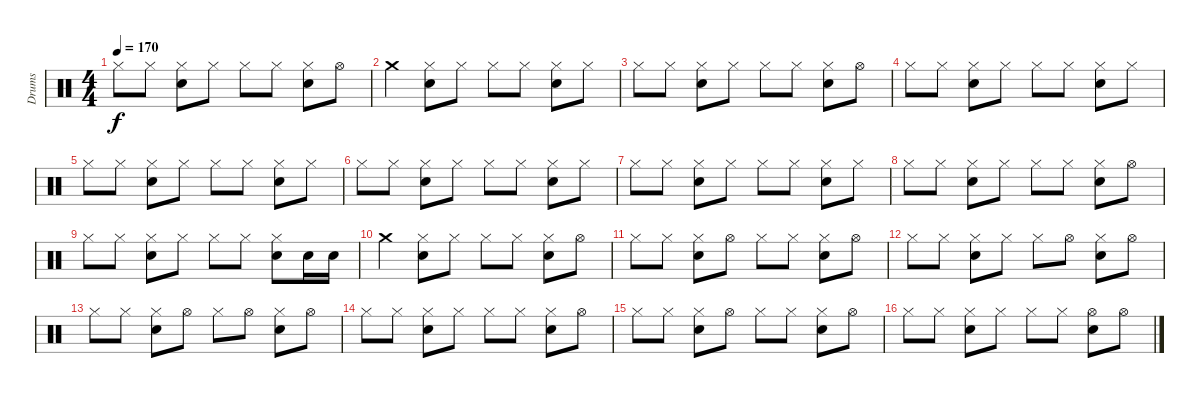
\track ("Drums" "Drums") {instrument percussion}
\staff {score}
\articulation defaults
\ts (4 4)
\tempo 170
\clef neutral
\ks c "Hi-Hat (closed)".8{dy f} "Hi-Hat (closed)".8
("Electric Snare (hit)" "Hi-Hat (closed)").8 "Hi-Hat (closed)".8 "Hi-Hat (closed)".8 "Hi-Hat (closed)".8 ("Electric Snare (hit)" "Hi-Hat (closed)").8 "Hi-Hat (open)".8 |
"Crash medium (hit)".4 ("Electric Snare (hit)" "Hi-Hat (closed)").8 "Hi-Hat (closed)".8 "Hi-Hat (closed)".8 "Hi-Hat (closed)".8 ("Electric Snare (hit)" "Hi-Hat (closed)").8 "Hi-Hat (closed)".8 |
"Hi-Hat (closed)".8 "Hi-Hat (closed)".8 ("Electric Snare (hit)" "Hi-Hat (closed)").8 "Hi-Hat (closed)".8 "Hi-Hat (closed)".8 "Hi-Hat (closed)".8 ("Electric Snare (hit)" "Hi-Hat (closed)").8 "Hi-Hat (open)".8 |
"Hi-Hat (closed)".8 "Hi-Hat (closed)".8 ("Electric Snare (hit)" "Hi-Hat (closed)").8 "Hi-Hat (closed)".8 "Hi-Hat (closed)".8 "Hi-Hat (closed)".8 ("Electric Snare (hit)" "Hi-Hat (closed)").8 "Hi-Hat (closed)".8 |
"Hi-Hat (closed)".8 "Hi-Hat (closed)".8 ("Electric Snare (hit)" "Hi-Hat (closed)").8 "Hi-Hat (closed)".8 "Hi-Hat (closed)".8 "Hi-Hat (closed)".8 ("Electric Snare (hit)" "Hi-Hat (closed)").8 "Hi-Hat (closed)".8 |
"Hi-Hat (closed)".8 "Hi-Hat (closed)".8 ("Electric Snare (hit)" "Hi-Hat (closed)").8 "Hi-Hat (closed)".8 "Hi-Hat (closed)".8 "Hi-Hat (closed)".8 ("Electric Snare (hit)" "Hi-Hat (closed)").8 "Hi-Hat (closed)".8 |
"Hi-Hat (closed)".8 "Hi-Hat (closed)".8 ("Electric Snare (hit)" "Hi-Hat (closed)").8 "Hi-Hat (closed)".8 "Hi-Hat (closed)".8 "Hi-Hat (closed)".8 ("Electric Snare (hit)" "Hi-Hat (closed)").8 "Hi-Hat (closed)".8 |
"Hi-Hat (closed)".8 "Hi-Hat (closed)".8 ("Electric Snare (hit)" "Hi-Hat (closed)").8 "Hi-Hat (closed)".8 "Hi-Hat (closed)".8 "Hi-Hat (closed)".8 ("Electric Snare (hit)" "Hi-Hat (closed)").8 "Hi-Hat (open)".8 |
"Hi-Hat (closed)".8 "Hi-Hat (closed)".8 ("Electric Snare (hit)" "Hi-Hat (closed)").8 "Hi-Hat (closed)".8 "Hi-Hat (closed)".8 "Hi-Hat (closed)".8 ("Electric Snare (hit)" "Hi-Hat (closed)").8 "Electric Snare (hit)".16 "Electric Snare (hit)".16 |
"Crash medium (hit)".4 ("Electric Snare (hit)" "Hi-Hat (closed)").8 "Hi-Hat (closed)".8 "Hi-Hat (closed)".8 "Hi-Hat (closed)".8 ("Electric Snare (hit)" "Hi-Hat (closed)").8 "Hi-Hat (open)".8 |
"Hi-Hat (closed)".8 "Hi-Hat (closed)".8 ("Electric Snare (hit)" "Hi-Hat (closed)").8 "Hi-Hat (open)".8 "Hi-Hat (closed)".8 "Hi-Hat (closed)".8 ("Electric Snare (hit)" "Hi-Hat (closed)").8 "Hi-Hat (open)".8 |
"Hi-Hat (closed)".8 "Hi-Hat (closed)".8 ("Electric Snare (hit)" "Hi-Hat (closed)").8 "Hi-Hat (closed)".8 "Hi-Hat (closed)".8 "Hi-Hat (open)".8 ("Electric Snare (hit)" "Hi-Hat (closed)").8 "Hi-Hat (open)".8 |
"Hi-Hat (closed)".8 "Hi-Hat (closed)".8 ("Electric Snare (hit)" "Hi-Hat (closed)").8 "Hi-Hat (open)".8 "Hi-Hat (closed)".8 "Hi-Hat (open)".8 ("Electric Snare (hit)" "Hi-Hat (closed)").8 "Hi-Hat (open)".8 |
"Hi-Hat (closed)".8 "Hi-Hat (closed)".8 ("Electric Snare (hit)" "Hi-Hat (closed)").8 "Hi-Hat (closed)".8 "Hi-Hat (closed)".8 "Hi-Hat (closed)".8 ("Electric Snare (hit)" "Hi-Hat (closed)").8 "Hi-Hat (open)".8 |
"Hi-Hat (closed)".8 "Hi-Hat (closed)".8 ("Electric Snare (hit)" "Hi-Hat (closed)").8 "Hi-Hat (open)".8 "Hi-Hat (closed)".8 "Hi-Hat (closed)".8 ("Electric Snare (hit)" "Hi-Hat (closed)").8 "Hi-Hat (open)".8 |
"Hi-Hat (closed)".8 "Hi-Hat (closed)".8 ("Electric Snare (hit)" "Hi-Hat (closed)").8 "Hi-Hat (closed)".8 "Hi-Hat (closed)".8 "Hi-Hat (closed)".8 ("Electric Snare (hit)" "Hi-Hat (open)").8 "Hi-Hat (open)".8
